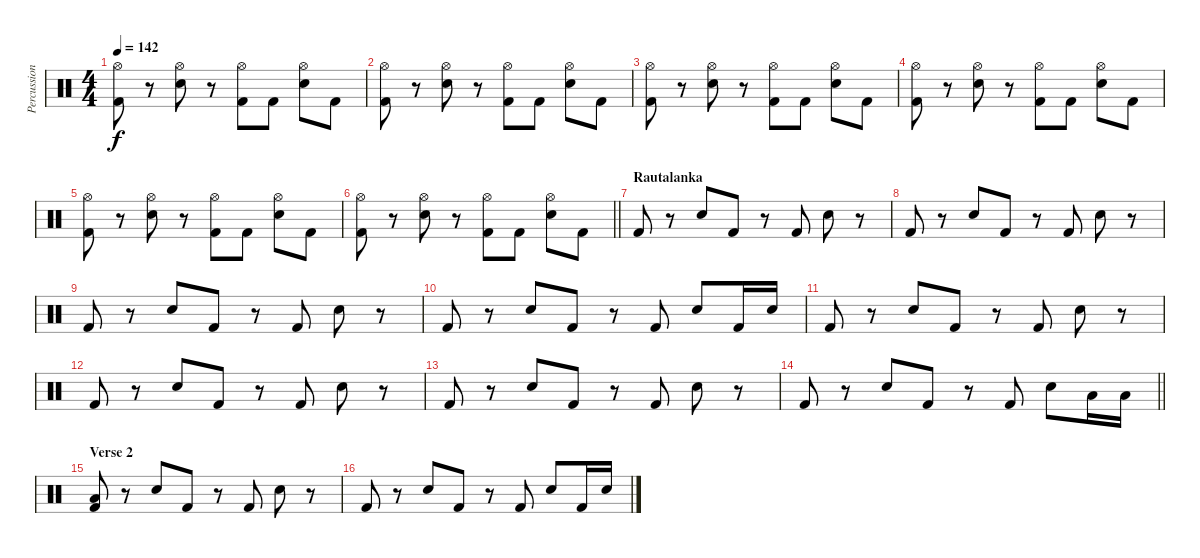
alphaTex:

\track ("Percussion" "Percussion") {instrument percussion}
\staff {score}
\articulation defaults
\ts (4 4)
\tempo 142
\clef neutral
\ks c
("Hi-Hat (open)" "Kick (hit) 2").8{dy f} r.8 ("Hi-Hat (open)" "Electric Snare (hit)").8 r.8 ("Hi-Hat (open)" "Kick (hit) 2").8 "Kick (hit) 2".8 ("Hi-Hat (open)" "Electric Snare (hit)").8 "Kick (hit) 2".8 |
("Hi-Hat (open)" "Kick (hit) 2").8 r.8 ("Hi-Hat (open)" "Electric Snare (hit)").8 r.8 ("Hi-Hat (open)" "Kick (hit) 2").8 "Kick (hit) 2".8 ("Hi-Hat (open)" "Electric Snare (hit)").8 "Kick (hit) 2".8 |
("Hi-Hat (open)" "Kick (hit) 2").8 r.8 ("Hi-Hat (open)" "Electric Snare (hit)").8 r.8 ("Hi-Hat (open)" "Kick (hit) 2").8 "Kick (hit) 2".8 ("Hi-Hat (open)" "Electric Snare (hit)").8 "Kick (hit) 2".8 |
("Hi-Hat (open)" "Kick (hit) 2").8 r.8 ("Hi-Hat (open)" "Electric Snare (hit)").8 r.8 ("Hi-Hat (open)" "Kick (hit) 2").8 "Kick (hit) 2".8 ("Hi-Hat (open)" "Electric Snare (hit)").8 "Kick (hit) 2".8 |
("Hi-Hat (open)" "Kick (hit) 2").8 r.8 ("Hi-Hat (open)" "Electric Snare (hit)").8 r.8 ("Hi-Hat (open)" "Kick (hit) 2").8 "Kick (hit) 2".8 ("Hi-Hat (open)" "Electric Snare (hit)").8 "Kick (hit) 2".8 |
\barLineRight lightlight
("Hi-Hat (open)" "Kick (hit) 2").8 r.8 ("Hi-Hat (open)" "Electric Snare (hit)").8 r.8 ("Hi-Hat (open)" "Kick (hit) 2").8 "Kick (hit) 2".8 ("Hi-Hat (open)" "Electric Snare (hit)").8 "Kick (hit) 2".8 |
\section ("" "Rautalanka")
"Kick (hit) 2".8 r.8 "Electric Snare (hit)".8 "Kick (hit) 2".8 r.8 "Kick (hit) 2".8 "Electric Snare (hit)".8 r.8 |
"Kick (hit) 2".8 r.8 "Electric Snare (hit)".8 "Kick (hit) 2".8 r.8 "Kick (hit) 2".8 "Electric Snare (hit)".8 r.8 |
"Kick (hit) 2".8 r.8 "Electric Snare (hit)".8 "Kick (hit) 2".8 r.8 "Kick (hit) 2".8 "Electric Snare (hit)".8 r.8 |
"Kick (hit) 2".8 r.8 "Electric Snare (hit)".8 "Kick (hit) 2".8 r.8 "Kick (hit) 2".8 "Electric Snare (hit)".8 "Kick (hit) 2".16 "Electric Snare (hit)".16 |
"Kick (hit) 2".8 r.8 "Electric Snare (hit)".8 "Kick (hit) 2".8 r.8 "Kick (hit) 2".8 "Electric Snare (hit)".8 r.8 |
"Kick (hit) 2".8 r.8 "Electric Snare (hit)".8 "Kick (hit) 2".8 r.8 "Kick (hit) 2".8 "Electric Snare (hit)".8 r.8 |
"Kick (hit) 2".8 r.8 "Electric Snare (hit)".8 "Kick (hit) 2".8 r.8 "Kick (hit) 2".8 "Electric Snare (hit)".8 r.8 |
\barLineRight lightlight "Kick (hit) 2".8
r.8 "Electric Snare (hit)".8 "Kick (hit) 2".8 r.8 "Kick (hit) 2".8 "Electric Snare (hit)".8 "Low Tom (hit)".16 "Low Tom (hit)".16 |
\section ("" "Verse 2")
("Low Tom (hit)" "Kick (hit) 2").8 r.8 "Electric Snare (hit)".8 "Kick (hit) 2".8 r.8 "Kick (hit) 2".8 "Electric Snare (hit)".8 r.8 |
"Kick (hit) 2".8 r.8 "Electric Snare (hit)".8 "Kick (hit) 2".8 r.8 "Kick (hit) 2".8 "Electric Snare (hit)".8 "Kick (hit) 2".16 "Electric Snare (hit)".16
